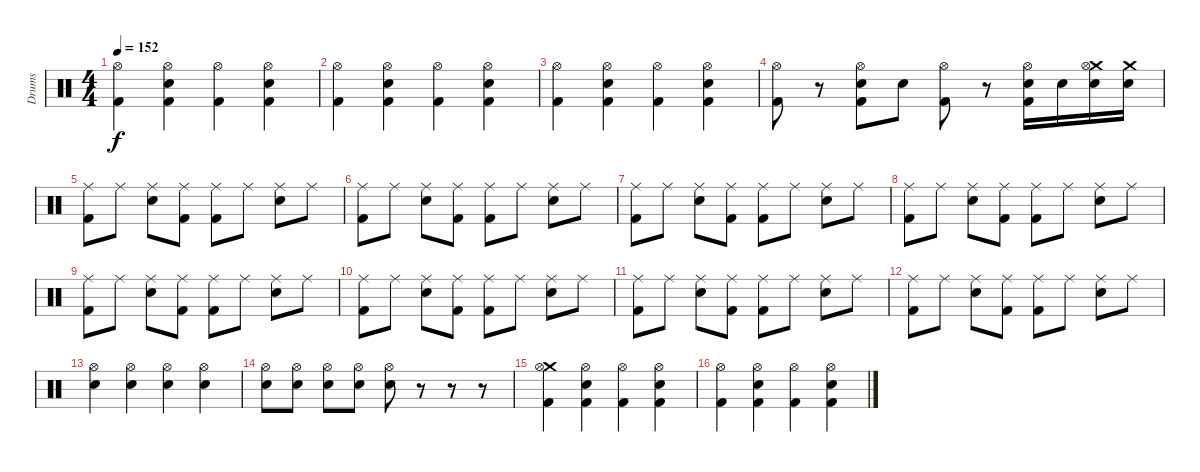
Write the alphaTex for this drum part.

\track ("Drums" "Drums") {instrument percussion}
\staff {score}
\articulation defaults
\ts (4 4)
\tempo 152
\clef neutral
\ks c
("Hi-Hat (open)" "Kick (hit) 2").4{dy f} ("Snare (hit) 2" "Hi-Hat (open)" "Kick (hit) 2").4 ("Hi-Hat (open)" "Kick (hit) 2").4 ("Snare (hit) 2" "Hi-Hat (open)" "Kick (hit) 2").4 |
("Hi-Hat (open)" "Kick (hit) 2").4 ("Snare (hit) 2" "Hi-Hat (open)" "Kick (hit) 2").4 ("Hi-Hat (open)" "Kick (hit) 2").4 ("Snare (hit) 2" "Hi-Hat (open)" "Kick (hit) 2").4 |
("Hi-Hat (open)" "Kick (hit) 2").4 ("Snare (hit) 2" "Hi-Hat (open)" "Kick (hit) 2").4 ("Hi-Hat (open)" "Kick (hit) 2").4 ("Snare (hit) 2" "Hi-Hat (open)" "Kick (hit) 2").4 |
("Hi-Hat (open)" "Kick (hit) 2").8 r.8 ("Snare (hit) 2" "Hi-Hat (open)" "Kick (hit) 2").8 "Snare (hit) 2".8 ("Hi-Hat (open)" "Kick (hit) 2").8 r.8 ("Snare (hit) 2" "Hi-Hat (open)" "Kick (hit) 2").16 "Snare (hit) 2".16 ("Crash medium (hit)" "Snare (hit) 2" "Hi-Hat (open)").16 ("Crash medium (hit)" "Snare (hit) 2").16 |
("Ride (middle)" "Kick (hit) 2").8 "Ride (middle)".8 ("Snare (hit) 2" "Ride (middle)").8 ("Ride (middle)" "Kick (hit) 2").8 ("Ride (middle)" "Kick (hit) 2").8 "Ride (middle)".8 ("Snare (hit) 2" "Ride (middle)").8 "Ride (middle)".8 |
("Ride (middle)" "Kick (hit) 2").8 "Ride (middle)".8 ("Snare (hit) 2" "Ride (middle)").8 ("Ride (middle)" "Kick (hit) 2").8 ("Ride (middle)" "Kick (hit) 2").8 "Ride (middle)".8 ("Snare (hit) 2" "Ride (middle)").8 "Ride (middle)".8 |
("Ride (middle)" "Kick (hit) 2").8 "Ride (middle)".8 ("Snare (hit) 2" "Ride (middle)").8 ("Ride (middle)" "Kick (hit) 2").8 ("Ride (middle)" "Kick (hit) 2").8 "Ride (middle)".8 ("Snare (hit) 2" "Ride (middle)").8 "Ride (middle)".8 |
("Ride (middle)" "Kick (hit) 2").8 "Ride (middle)".8 ("Snare (hit) 2" "Ride (middle)").8 ("Ride (middle)" "Kick (hit) 2").8 ("Ride (middle)" "Kick (hit) 2").8 "Ride (middle)".8 ("Snare (hit) 2" "Ride (middle)").8 "Ride (middle)".8 |
("Ride (middle)" "Kick (hit) 2").8 "Ride (middle)".8 ("Snare (hit) 2" "Ride (middle)").8 ("Ride (middle)" "Kick (hit) 2").8 ("Ride (middle)" "Kick (hit) 2").8 "Ride (middle)".8 ("Snare (hit) 2" "Ride (middle)").8 "Ride (middle)".8 |
("Ride (middle)" "Kick (hit) 2").8 "Ride (middle)".8 ("Snare (hit) 2" "Ride (middle)").8 ("Ride (middle)" "Kick (hit) 2").8 ("Ride (middle)" "Kick (hit) 2").8 "Ride (middle)".8 ("Snare (hit) 2" "Ride (middle)").8 "Ride (middle)".8 |
("Ride (middle)" "Kick (hit) 2").8 "Ride (middle)".8 ("Snare (hit) 2" "Ride (middle)").8 ("Ride (middle)" "Kick (hit) 2").8 ("Ride (middle)" "Kick (hit) 2").8 "Ride (middle)".8 ("Snare (hit) 2" "Ride (middle)").8 "Ride (middle)".8 |
("Ride (middle)" "Kick (hit) 2").8 "Ride (middle)".8 ("Snare (hit) 2" "Ride (middle)").8 ("Ride (middle)" "Kick (hit) 2").8 ("Ride (middle)" "Kick (hit) 2").8 "Ride (middle)".8 ("Snare (hit) 2" "Ride (middle)").8 "Ride (middle)".8 |
("Snare (hit) 2" "Hi-Hat (open)").4 ("Snare (hit) 2" "Hi-Hat (open)").4 ("Snare (hit) 2" "Hi-Hat (open)").4 ("Snare (hit) 2" "Hi-Hat (open)").4 |
("Snare (hit) 2" "Hi-Hat (open)").8 ("Snare (hit) 2" "Hi-Hat (open)").8 ("Snare (hit) 2" "Hi-Hat (open)").8 ("Snare (hit) 2" "Hi-Hat (open)").8 ("Snare (hit) 2" "Hi-Hat (open)").8 r.8 r.8 r.8 |
("Crash medium (hit)" "Hi-Hat (open)" "Kick (hit) 2").4 ("Snare (hit) 2" "Hi-Hat (open)" "Kick (hit) 2").4 ("Hi-Hat (open)" "Kick (hit) 2").4 ("Snare (hit) 2" "Hi-Hat (open)" "Kick (hit) 2").4 |
("Hi-Hat (open)" "Kick (hit) 2").4 ("Snare (hit) 2" "Hi-Hat (open)" "Kick (hit) 2").4 ("Hi-Hat (open)" "Kick (hit) 2").4 ("Snare (hit) 2" "Hi-Hat (open)" "Kick (hit) 2").4
